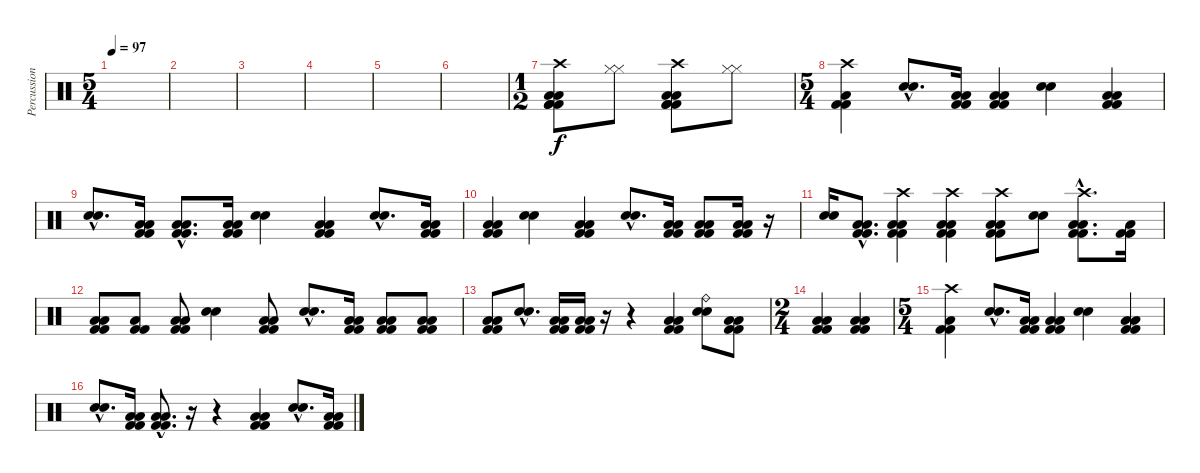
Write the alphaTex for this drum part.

\track ("Percussions" "Percussion") {instrument percussion}
\staff {score}
\articulation defaults
\ts (5 4)
\tempo 97
\clef neutral
\ks c
|
|
|
|
|
|
\ts (1 2)
("Kick (hit) 2" "Kick (hit) 2" "Kick (hit) 2" "Low Floor Tom (hit)" "Low Floor Tom (hit)" "Crash high (hit)").8 ("Hi-Hat (closed)" "Hi-Hat (closed)").8 ("Kick (hit) 2" "Kick (hit) 2" "Kick (hit) 2" "Low Floor Tom (hit)" "Low Floor Tom (hit)" "Crash high (hit)").8 ("Hi-Hat (closed)" "Hi-Hat (closed)").8 |
\ts (5 4)
("Kick (hit) 2" "Kick (hit) 2" "Low Floor Tom (hit)" "Crash high (hit)").4 ("Electric Snare (hit)"{hac} "Electric Snare (hit)"{hac}).8{d} ("Kick (hit) 2" "Kick (hit) 2" "Low Floor Tom (hit)" "Low Floor Tom (hit)").16 ("Kick (hit) 2" "Kick (hit) 2" "Low Floor Tom (hit)" "Low Floor Tom (hit)").4 ("Electric Snare (hit)" "Electric Snare (hit)").4 ("Kick (hit) 2" "Kick (hit) 2" "Low Floor Tom (hit)" "Low Floor Tom (hit)").4 |
("Electric Snare (hit)"{hac} "Electric Snare (hit)"{hac}).8{d} ("Kick (hit) 2" "Kick (hit) 2" "Low Floor Tom (hit)" "Low Floor Tom (hit)").16 ("Kick (hit) 2"{hac} "Kick (hit) 2"{hac} "Low Floor Tom (hit)"{hac} "Low Floor Tom (hit)"{hac}).8{d} ("Kick (hit) 2" "Kick (hit) 2" "Low Floor Tom (hit)" "Low Floor Tom (hit)").16 ("Electric Snare (hit)" "Electric Snare (hit)").4 ("Kick (hit) 2" "Kick (hit) 2" "Low Floor Tom (hit)" "Low Floor Tom (hit)").4 ("Electric Snare (hit)"{hac} "Electric Snare (hit)"{hac}).8{d} ("Kick (hit) 2" "Kick (hit) 2" "Low Floor Tom (hit)" "Low Floor Tom (hit)").16 |
("Kick (hit) 2" "Kick (hit) 2" "Low Floor Tom (hit)" "Low Floor Tom (hit)").4 ("Electric Snare (hit)" "Electric Snare (hit)").4 ("Kick (hit) 2" "Kick (hit) 2" "Low Floor Tom (hit)" "Low Floor Tom (hit)").4 ("Electric Snare (hit)"{hac} "Electric Snare (hit)"{hac}).8{d} ("Kick (hit) 2" "Kick (hit) 2" "Low Floor Tom (hit)" "Low Floor Tom (hit)").16 ("Kick (hit) 2" "Kick (hit) 2" "Low Floor Tom (hit)" "Low Floor Tom (hit)").8 ("Kick (hit) 2" "Kick (hit) 2" "Low Floor Tom (hit)" "Low Floor Tom (hit)").16 r.16 |
("Electric Snare (hit)" "Electric Snare (hit)").16 ("Kick (hit) 2"{hac} "Kick (hit) 2"{hac} "Low Floor Tom (hit)"{hac} "Low Floor Tom (hit)"{hac}).8{d} ("Kick (hit) 2" "Kick (hit) 2" "Low Floor Tom (hit)" "Low Floor Tom (hit)" "Crash high (hit)").4 ("Kick (hit) 2" "Kick (hit) 2" "Low Floor Tom (hit)" "Low Floor Tom (hit)" "Crash high (hit)").4 ("Kick (hit) 2" "Kick (hit) 2" "Low Floor Tom (hit)" "Low Floor Tom (hit)" "Crash high (hit)").8 ("Electric Snare (hit)" "Electric Snare (hit)").8 ("Kick (hit) 2"{hac} "Kick (hit) 2"{hac} "Low Floor Tom (hit)"{hac} "Low Floor Tom (hit)"{hac} "Crash high (hit)"{hac}).8{d} ("Kick (hit) 2" "Kick (hit) 2" "Low Floor Tom (hit)").16 |
("Kick (hit) 2" "Kick (hit) 2" "Low Floor Tom (hit)" "Low Floor Tom (hit)").8 ("Kick (hit) 2" "Kick (hit) 2" "Low Floor Tom (hit)").8 ("Kick (hit) 2" "Kick (hit) 2" "Low Floor Tom (hit)" "Low Floor Tom (hit)").8 ("Electric Snare (hit)" "Electric Snare (hit)").4 ("Kick (hit) 2" "Kick (hit) 2" "Low Floor Tom (hit)" "Low Floor Tom (hit)").8 ("Electric Snare (hit)"{hac} "Electric Snare (hit)"{hac}).8{d} ("Kick (hit) 2" "Kick (hit) 2" "Low Floor Tom (hit)" "Low Floor Tom (hit)").16 ("Kick (hit) 2" "Kick (hit) 2" "Low Floor Tom (hit)" "Low Floor Tom (hit)").8 ("Kick (hit) 2" "Kick (hit) 2" "Low Floor Tom (hit)" "Low Floor Tom (hit)").8 |
("Kick (hit) 2" "Kick (hit) 2" "Low Floor Tom (hit)" "Low Floor Tom (hit)").8 ("Electric Snare (hit)"{hac} "Electric Snare (hit)"{hac}).8{d} ("Kick (hit) 2" "Kick (hit) 2" "Low Floor Tom (hit)" "Low Floor Tom (hit)").16 ("Kick (hit) 2" "Kick (hit) 2" "Low Floor Tom (hit)" "Low Floor Tom (hit)").16 r.16 r.4 ("Kick (hit) 2" "Kick (hit) 2" "Low Floor Tom (hit)" "Low Floor Tom (hit)").4 ("Electric Snare (hit)" "Electric Snare (hit)" "Ride (bell)").8 ("Kick (hit) 2" "Kick (hit) 2" "Low Floor Tom (hit)" "Low Floor Tom (hit)").8 |
\ts (2 4)
("Kick (hit) 2" "Kick (hit) 2" "Low Floor Tom (hit)" "Low Floor Tom (hit)").4 ("Kick (hit) 2" "Kick (hit) 2" "Low Floor Tom (hit)" "Low Floor Tom (hit)").4 |
\ts (5 4)
("Kick (hit) 2" "Kick (hit) 2" "Low Floor Tom (hit)" "Crash high (hit)").4 ("Electric Snare (hit)"{hac} "Electric Snare (hit)"{hac}).8{d} ("Kick (hit) 2" "Kick (hit) 2" "Low Floor Tom (hit)" "Low Floor Tom (hit)").16 ("Kick (hit) 2" "Kick (hit) 2" "Low Floor Tom (hit)" "Low Floor Tom (hit)").4 ("Electric Snare (hit)" "Electric Snare (hit)").4 ("Kick (hit) 2" "Kick (hit) 2" "Low Floor Tom (hit)" "Low Floor Tom (hit)").4 |
("Electric Snare (hit)"{hac} "Electric Snare (hit)"{hac}).8{d} ("Kick (hit) 2" "Kick (hit) 2" "Low Floor Tom (hit)" "Low Floor Tom (hit)").16 ("Kick (hit) 2"{hac} "Kick (hit) 2"{hac} "Low Floor Tom (hit)"{hac} "Low Floor Tom (hit)"{hac}).8{d} r.16 r.4 ("Kick (hit) 2" "Kick (hit) 2" "Low Floor Tom (hit)" "Low Floor Tom (hit)").4 ("Electric Snare (hit)"{hac} "Electric Snare (hit)"{hac}).8{d} ("Kick (hit) 2" "Kick (hit) 2" "Low Floor Tom (hit)" "Low Floor Tom (hit)").16
